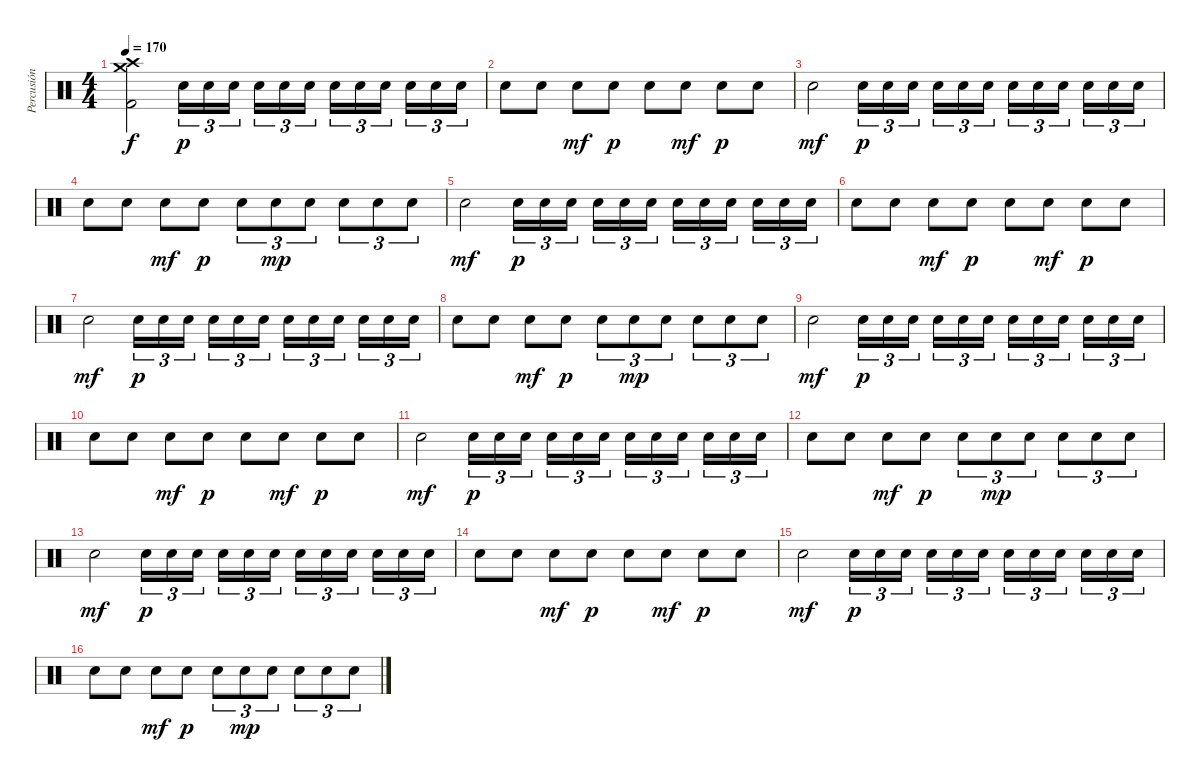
\track ("Percusión" "Percusión") {instrument percussion}
\staff {score}
\articulation defaults
\ts (4 4)
\tempo 170
\clef neutral
\ks c
("Crash high (hit)" "Crash medium (hit)" "Kick (hit) 2").2{dy f} "Electric Snare (hit)".16{tu (3 2) dy p} "Electric Snare (hit)".16{tu (3 2)} "Electric Snare (hit)".16{tu (3 2) beam splitsecondary} "Electric Snare (hit)".16{tu (3 2)} "Electric Snare (hit)".16{tu (3 2)} "Electric Snare (hit)".16{tu (3 2)} "Electric Snare (hit)".16{tu (3 2)} "Electric Snare (hit)".16{tu (3 2)} "Electric Snare (hit)".16{tu (3 2) beam splitsecondary} "Electric Snare (hit)".16{tu (3 2)} "Electric Snare (hit)".16{tu (3 2)} "Electric Snare (hit)".16{tu (3 2)} |
"Electric Snare (hit)".8 "Electric Snare (hit)".8 "Electric Snare (hit)".8{dy mf} "Electric Snare (hit)".8{dy p} "Electric Snare (hit)".8 "Electric Snare (hit)".8{dy mf} "Electric Snare (hit)".8{dy p} "Electric Snare (hit)".8 |
"Electric Snare (hit)".2{dy mf} "Electric Snare (hit)".16{tu (3 2) dy p} "Electric Snare (hit)".16{tu (3 2)} "Electric Snare (hit)".16{tu (3 2) beam splitsecondary} "Electric Snare (hit)".16{tu (3 2)} "Electric Snare (hit)".16{tu (3 2)} "Electric Snare (hit)".16{tu (3 2)} "Electric Snare (hit)".16{tu (3 2)} "Electric Snare (hit)".16{tu (3 2)} "Electric Snare (hit)".16{tu (3 2) beam splitsecondary} "Electric Snare (hit)".16{tu (3 2)} "Electric Snare (hit)".16{tu (3 2)} "Electric Snare (hit)".16{tu (3 2)} |
"Electric Snare (hit)".8 "Electric Snare (hit)".8 "Electric Snare (hit)".8{dy mf} "Electric Snare (hit)".8{dy p} "Electric Snare (hit)".8{tu (3 2)} "Electric Snare (hit)".8{tu (3 2) dy mp} "Electric Snare (hit)".8{tu (3 2)} "Electric Snare (hit)".8{tu (3 2)} "Electric Snare (hit)".8{tu (3 2)} "Electric Snare (hit)".8{tu (3 2)} |
"Electric Snare (hit)".2{dy mf} "Electric Snare (hit)".16{tu (3 2) dy p} "Electric Snare (hit)".16{tu (3 2)} "Electric Snare (hit)".16{tu (3 2) beam splitsecondary} "Electric Snare (hit)".16{tu (3 2)} "Electric Snare (hit)".16{tu (3 2)} "Electric Snare (hit)".16{tu (3 2)} "Electric Snare (hit)".16{tu (3 2)} "Electric Snare (hit)".16{tu (3 2)} "Electric Snare (hit)".16{tu (3 2) beam splitsecondary} "Electric Snare (hit)".16{tu (3 2)} "Electric Snare (hit)".16{tu (3 2)} "Electric Snare (hit)".16{tu (3 2)} |
"Electric Snare (hit)".8 "Electric Snare (hit)".8 "Electric Snare (hit)".8{dy mf} "Electric Snare (hit)".8{dy p} "Electric Snare (hit)".8 "Electric Snare (hit)".8{dy mf} "Electric Snare (hit)".8{dy p} "Electric Snare (hit)".8 |
"Electric Snare (hit)".2{dy mf} "Electric Snare (hit)".16{tu (3 2) dy p} "Electric Snare (hit)".16{tu (3 2)} "Electric Snare (hit)".16{tu (3 2) beam splitsecondary} "Electric Snare (hit)".16{tu (3 2)} "Electric Snare (hit)".16{tu (3 2)} "Electric Snare (hit)".16{tu (3 2)} "Electric Snare (hit)".16{tu (3 2)} "Electric Snare (hit)".16{tu (3 2)} "Electric Snare (hit)".16{tu (3 2) beam splitsecondary} "Electric Snare (hit)".16{tu (3 2)} "Electric Snare (hit)".16{tu (3 2)} "Electric Snare (hit)".16{tu (3 2)} |
"Electric Snare (hit)".8 "Electric Snare (hit)".8 "Electric Snare (hit)".8{dy mf} "Electric Snare (hit)".8{dy p} "Electric Snare (hit)".8{tu (3 2)} "Electric Snare (hit)".8{tu (3 2) dy mp} "Electric Snare (hit)".8{tu (3 2)} "Electric Snare (hit)".8{tu (3 2)} "Electric Snare (hit)".8{tu (3 2)} "Electric Snare (hit)".8{tu (3 2)} |
"Electric Snare (hit)".2{dy mf} "Electric Snare (hit)".16{tu (3 2) dy p} "Electric Snare (hit)".16{tu (3 2)} "Electric Snare (hit)".16{tu (3 2) beam splitsecondary} "Electric Snare (hit)".16{tu (3 2)} "Electric Snare (hit)".16{tu (3 2)} "Electric Snare (hit)".16{tu (3 2)} "Electric Snare (hit)".16{tu (3 2)} "Electric Snare (hit)".16{tu (3 2)} "Electric Snare (hit)".16{tu (3 2) beam splitsecondary} "Electric Snare (hit)".16{tu (3 2)} "Electric Snare (hit)".16{tu (3 2)} "Electric Snare (hit)".16{tu (3 2)} |
"Electric Snare (hit)".8 "Electric Snare (hit)".8 "Electric Snare (hit)".8{dy mf} "Electric Snare (hit)".8{dy p} "Electric Snare (hit)".8 "Electric Snare (hit)".8{dy mf} "Electric Snare (hit)".8{dy p} "Electric Snare (hit)".8 |
"Electric Snare (hit)".2{dy mf} "Electric Snare (hit)".16{tu (3 2) dy p} "Electric Snare (hit)".16{tu (3 2)} "Electric Snare (hit)".16{tu (3 2) beam splitsecondary} "Electric Snare (hit)".16{tu (3 2)} "Electric Snare (hit)".16{tu (3 2)} "Electric Snare (hit)".16{tu (3 2)} "Electric Snare (hit)".16{tu (3 2)} "Electric Snare (hit)".16{tu (3 2)} "Electric Snare (hit)".16{tu (3 2) beam splitsecondary} "Electric Snare (hit)".16{tu (3 2)} "Electric Snare (hit)".16{tu (3 2)} "Electric Snare (hit)".16{tu (3 2)} |
"Electric Snare (hit)".8 "Electric Snare (hit)".8 "Electric Snare (hit)".8{dy mf} "Electric Snare (hit)".8{dy p} "Electric Snare (hit)".8{tu (3 2)} "Electric Snare (hit)".8{tu (3 2) dy mp} "Electric Snare (hit)".8{tu (3 2)} "Electric Snare (hit)".8{tu (3 2)} "Electric Snare (hit)".8{tu (3 2)} "Electric Snare (hit)".8{tu (3 2)} |
"Electric Snare (hit)".2{dy mf} "Electric Snare (hit)".16{tu (3 2) dy p} "Electric Snare (hit)".16{tu (3 2)} "Electric Snare (hit)".16{tu (3 2) beam splitsecondary} "Electric Snare (hit)".16{tu (3 2)} "Electric Snare (hit)".16{tu (3 2)} "Electric Snare (hit)".16{tu (3 2)} "Electric Snare (hit)".16{tu (3 2)} "Electric Snare (hit)".16{tu (3 2)} "Electric Snare (hit)".16{tu (3 2) beam splitsecondary} "Electric Snare (hit)".16{tu (3 2)} "Electric Snare (hit)".16{tu (3 2)} "Electric Snare (hit)".16{tu (3 2)} |
"Electric Snare (hit)".8 "Electric Snare (hit)".8 "Electric Snare (hit)".8{dy mf} "Electric Snare (hit)".8{dy p} "Electric Snare (hit)".8 "Electric Snare (hit)".8{dy mf} "Electric Snare (hit)".8{dy p} "Electric Snare (hit)".8 |
"Electric Snare (hit)".2{dy mf} "Electric Snare (hit)".16{tu (3 2) dy p} "Electric Snare (hit)".16{tu (3 2)} "Electric Snare (hit)".16{tu (3 2) beam splitsecondary} "Electric Snare (hit)".16{tu (3 2)} "Electric Snare (hit)".16{tu (3 2)} "Electric Snare (hit)".16{tu (3 2)} "Electric Snare (hit)".16{tu (3 2)} "Electric Snare (hit)".16{tu (3 2)} "Electric Snare (hit)".16{tu (3 2) beam splitsecondary} "Electric Snare (hit)".16{tu (3 2)} "Electric Snare (hit)".16{tu (3 2)} "Electric Snare (hit)".16{tu (3 2)} |
"Electric Snare (hit)".8 "Electric Snare (hit)".8 "Electric Snare (hit)".8{dy mf} "Electric Snare (hit)".8{dy p} "Electric Snare (hit)".8{tu (3 2)} "Electric Snare (hit)".8{tu (3 2) dy mp} "Electric Snare (hit)".8{tu (3 2)} "Electric Snare (hit)".8{tu (3 2)} "Electric Snare (hit)".8{tu (3 2)} "Electric Snare (hit)".8{tu (3 2)}
